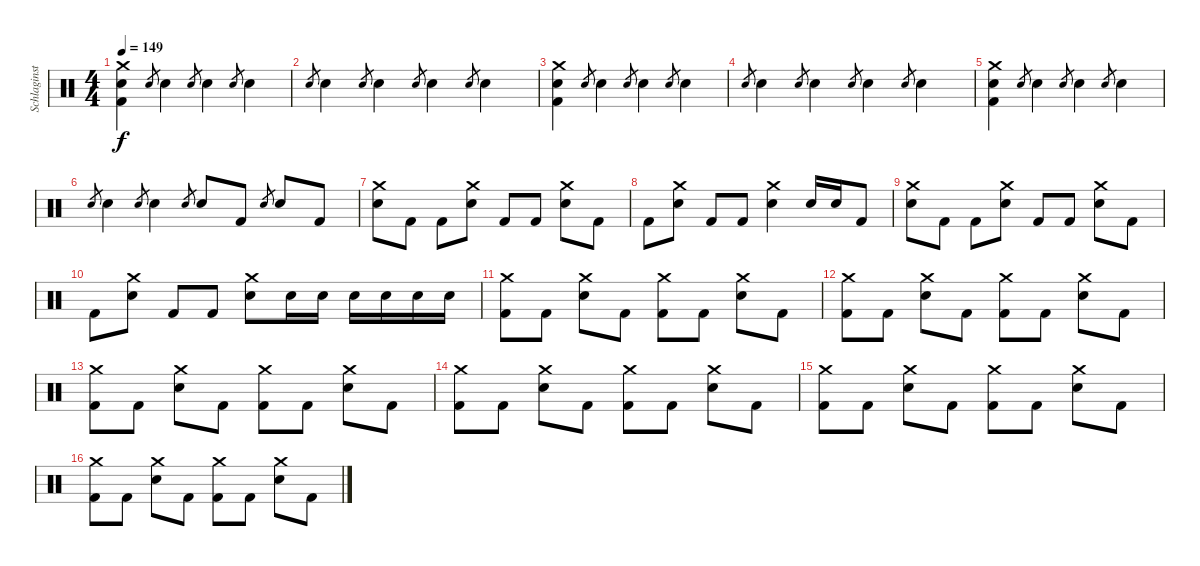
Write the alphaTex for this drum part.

\track ("Schlaginstrumente - Auswahl" "Schlaginst") {instrument percussion}
\staff {score}
\articulation defaults
\ts (4 4)
\tempo 149
\clef neutral
\ks c
("Crash medium (hit)" "Electric Snare (hit)" "Kick (hit) 2").4{dy f} "Electric Snare (hit)".8{gr} "Electric Snare (hit)".4 "Electric Snare (hit)".8{gr} "Electric Snare (hit)".4 "Electric Snare (hit)".8{gr} "Electric Snare (hit)".4 |
"Electric Snare (hit)".8{gr} "Electric Snare (hit)".4 "Electric Snare (hit)".8{gr} "Electric Snare (hit)".4 "Electric Snare (hit)".8{gr} "Electric Snare (hit)".4 "Electric Snare (hit)".8{gr} "Electric Snare (hit)".4 |
("Crash medium (hit)" "Electric Snare (hit)" "Kick (hit) 2").4 "Electric Snare (hit)".8{gr} "Electric Snare (hit)".4 "Electric Snare (hit)".8{gr} "Electric Snare (hit)".4 "Electric Snare (hit)".8{gr} "Electric Snare (hit)".4 |
"Electric Snare (hit)".8{gr} "Electric Snare (hit)".4 "Electric Snare (hit)".8{gr} "Electric Snare (hit)".4 "Electric Snare (hit)".8{gr} "Electric Snare (hit)".4 "Electric Snare (hit)".8{gr} "Electric Snare (hit)".4 |
("Crash medium (hit)" "Electric Snare (hit)" "Kick (hit) 2").4 "Electric Snare (hit)".8{gr} "Electric Snare (hit)".4 "Electric Snare (hit)".8{gr} "Electric Snare (hit)".4 "Electric Snare (hit)".8{gr} "Electric Snare (hit)".4 |
"Electric Snare (hit)".8{gr} "Electric Snare (hit)".4 "Electric Snare (hit)".8{gr} "Electric Snare (hit)".4 "Electric Snare (hit)".8{gr} "Electric Snare (hit)".8 "Kick (hit) 2".8 "Electric Snare (hit)".8{gr} "Electric Snare (hit)".8 "Kick (hit) 2".8 |
("Crash medium (hit)" "Electric Snare (hit)").8 "Kick (hit) 2".8 "Kick (hit) 2".8 ("Crash medium (hit)" "Electric Snare (hit)").8 "Kick (hit) 2".8 "Kick (hit) 2".8 ("Crash medium (hit)" "Electric Snare (hit)").8 "Kick (hit) 2".8 |
"Kick (hit) 2".8 ("Crash medium (hit)" "Electric Snare (hit)").8 "Kick (hit) 2".8 "Kick (hit) 2".8 ("Crash medium (hit)" "Electric Snare (hit)").4 "Electric Snare (hit)".16 "Electric Snare (hit)".16 "Kick (hit) 2".8 |
("Crash medium (hit)" "Electric Snare (hit)").8 "Kick (hit) 2".8 "Kick (hit) 2".8 ("Crash medium (hit)" "Electric Snare (hit)").8 "Kick (hit) 2".8 "Kick (hit) 2".8 ("Crash medium (hit)" "Electric Snare (hit)").8 "Kick (hit) 2".8 |
"Kick (hit) 2".8 ("Crash medium (hit)" "Electric Snare (hit)").8 "Kick (hit) 2".8 "Kick (hit) 2".8 ("Crash medium (hit)" "Electric Snare (hit)").8 "Electric Snare (hit)".16 "Electric Snare (hit)".16 "Electric Snare (hit)".16 "Electric Snare (hit)".16 "Electric Snare (hit)".16 "Electric Snare (hit)".16 |
("Crash medium (hit)" "Kick (hit) 2").8 "Kick (hit) 2".8 ("Crash medium (hit)" "Electric Snare (hit)").8 "Kick (hit) 2".8 ("Crash medium (hit)" "Kick (hit) 2").8 "Kick (hit) 2".8 ("Crash medium (hit)" "Electric Snare (hit)").8 "Kick (hit) 2".8 |
("Crash medium (hit)" "Kick (hit) 2").8 "Kick (hit) 2".8 ("Crash medium (hit)" "Electric Snare (hit)").8 "Kick (hit) 2".8 ("Crash medium (hit)" "Kick (hit) 2").8 "Kick (hit) 2".8 ("Crash medium (hit)" "Electric Snare (hit)").8 "Kick (hit) 2".8 |
("Crash medium (hit)" "Kick (hit) 2").8 "Kick (hit) 2".8 ("Crash medium (hit)" "Electric Snare (hit)").8 "Kick (hit) 2".8 ("Crash medium (hit)" "Kick (hit) 2").8 "Kick (hit) 2".8 ("Crash medium (hit)" "Electric Snare (hit)").8 "Kick (hit) 2".8 |
("Crash medium (hit)" "Kick (hit) 2").8 "Kick (hit) 2".8 ("Crash medium (hit)" "Electric Snare (hit)").8 "Kick (hit) 2".8 ("Crash medium (hit)" "Kick (hit) 2").8 "Kick (hit) 2".8 ("Crash medium (hit)" "Electric Snare (hit)").8 "Kick (hit) 2".8 |
("Crash medium (hit)" "Kick (hit) 2").8 "Kick (hit) 2".8 ("Crash medium (hit)" "Electric Snare (hit)").8 "Kick (hit) 2".8 ("Crash medium (hit)" "Kick (hit) 2").8 "Kick (hit) 2".8 ("Crash medium (hit)" "Electric Snare (hit)").8 "Kick (hit) 2".8 |
("Crash medium (hit)" "Kick (hit) 2").8 "Kick (hit) 2".8 ("Crash medium (hit)" "Electric Snare (hit)").8 "Kick (hit) 2".8 ("Crash medium (hit)" "Kick (hit) 2").8 "Kick (hit) 2".8 ("Crash medium (hit)" "Electric Snare (hit)").8 "Kick (hit) 2".8
